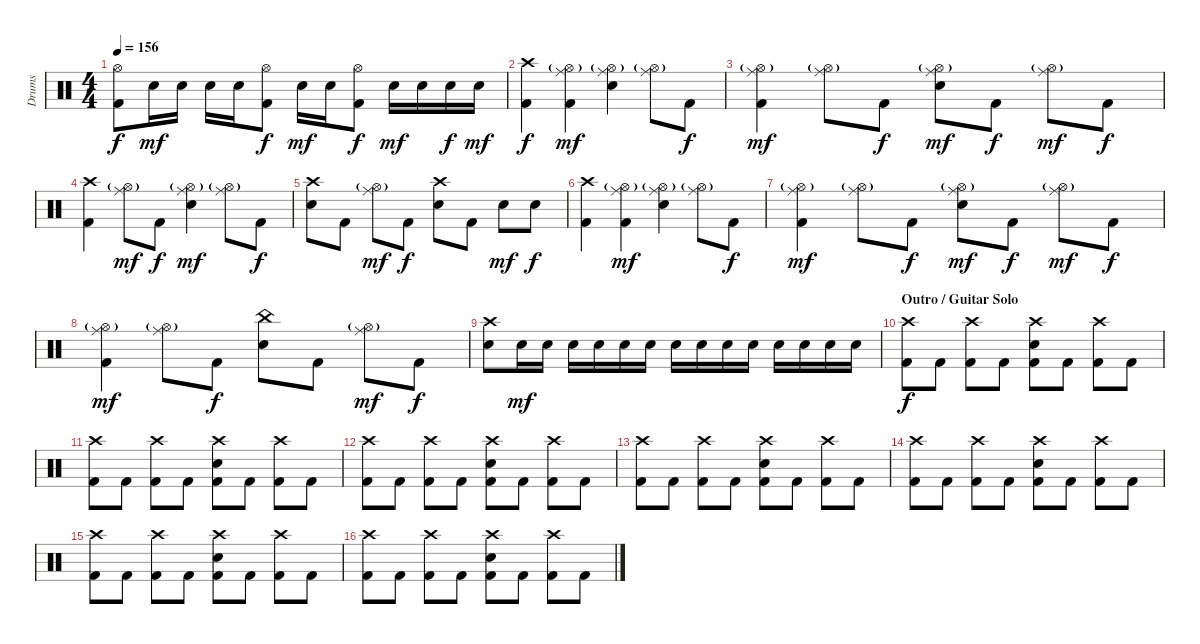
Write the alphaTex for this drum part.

\track ("Drums" "Drums") {instrument percussion}
\staff {score}
\articulation defaults
\ts (4 4)
\tempo 156
\clef neutral
\ks c
("Hi-Hat (open)" "Kick (hit) 2").8{dy f} "Electric Snare (hit)".16{dy mf} "Electric Snare (hit)".16 "Electric Snare (hit)".16 "Electric Snare (hit)".16 ("Hi-Hat (open)" "Kick (hit) 2").8{dy f} "Electric Snare (hit)".16{dy mf} "Electric Snare (hit)".16 ("Hi-Hat (open)" "Kick (hit) 2").8{dy f} "Electric Snare (hit)".16{dy mf} "Electric Snare (hit)".16 "Electric Snare (hit)".16{dy f} "Electric Snare (hit)".16{dy mf} |
("Crash high (hit)" "Kick (hit) 2").4{dy f} ("Ride (middle)" "Hi-Hat (open)"{g} "Kick (hit) 2").4{dy mf} ("Ride (middle)" "Hi-Hat (open)"{g} "Electric Snare (hit)").4 ("Ride (middle)" "Hi-Hat (open)"{g}).8 "Kick (hit) 2".8{dy f} |
("Ride (middle)" "Hi-Hat (open)"{g} "Kick (hit) 2").4{dy mf} ("Ride (middle)" "Hi-Hat (open)"{g}).8 "Kick (hit) 2".8{dy f} ("Ride (middle)" "Hi-Hat (open)"{g} "Electric Snare (hit)").8{dy mf} "Kick (hit) 2".8{dy f} ("Ride (middle)" "Hi-Hat (open)"{g}).8{dy mf} "Kick (hit) 2".8{dy f} |
("Crash high (hit)" "Kick (hit) 2").4 ("Ride (middle)" "Hi-Hat (open)"{g}).8{dy mf} "Kick (hit) 2".8{dy f} ("Ride (middle)" "Hi-Hat (open)"{g} "Electric Snare (hit)").4{dy mf} ("Ride (middle)" "Hi-Hat (open)"{g}).8 "Kick (hit) 2".8{dy f} |
("Crash high (hit)" "Electric Snare (hit)").8 "Kick (hit) 2".8 ("Ride (middle)" "Hi-Hat (open)"{g}).8{dy mf} "Kick (hit) 2".8{dy f} ("Crash high (hit)" "Electric Snare (hit)").8 "Kick (hit) 2".8 "Electric Snare (hit)".8{dy mf} "Electric Snare (hit)".8{dy f} |
("Crash high (hit)" "Kick (hit) 2").4 ("Ride (middle)" "Hi-Hat (open)"{g} "Kick (hit) 2").4{dy mf} ("Ride (middle)" "Hi-Hat (open)"{g} "Electric Snare (hit)").4 ("Ride (middle)" "Hi-Hat (open)"{g}).8 "Kick (hit) 2".8{dy f} |
("Ride (middle)" "Hi-Hat (open)"{g} "Kick (hit) 2").4{dy mf} ("Ride (middle)" "Hi-Hat (open)"{g}).8 "Kick (hit) 2".8{dy f} ("Ride (middle)" "Hi-Hat (open)"{g} "Electric Snare (hit)").8{dy mf} "Kick (hit) 2".8{dy f} ("Ride (middle)" "Hi-Hat (open)"{g}).8{dy mf} "Kick (hit) 2".8{dy f} |
("Ride (middle)" "Hi-Hat (open)"{g} "Kick (hit) 2").4{dy mf} ("Ride (middle)" "Hi-Hat (open)"{g}).8 "Kick (hit) 2".8{dy f} ("China (hit)" "Electric Snare (hit)").8 "Kick (hit) 2".8 ("Ride (middle)" "Hi-Hat (open)"{g}).8{dy mf} "Kick (hit) 2".8{dy f} |
("Crash high (hit)" "Electric Snare (hit)").8 "Electric Snare (hit)".16{dy mf} "Electric Snare (hit)".16 "Electric Snare (hit)".16 "Electric Snare (hit)".16 "Electric Snare (hit)".16 "Electric Snare (hit)".16 "Electric Snare (hit)".16 "Electric Snare (hit)".16 "Electric Snare (hit)".16 "Electric Snare (hit)".16 "Electric Snare (hit)".16 "Electric Snare (hit)".16 "Electric Snare (hit)".16 "Electric Snare (hit)".16 |
\section ("" "Outro / Guitar Solo")
("Crash high (hit)" "Kick (hit) 2").8{dy f} "Kick (hit) 2".8 ("Crash high (hit)" "Kick (hit) 2").8 "Kick (hit) 2".8 ("Crash high (hit)" "Electric Snare (hit)" "Kick (hit) 2").8 "Kick (hit) 2".8 ("Crash high (hit)" "Kick (hit) 2").8 "Kick (hit) 2".8 |
("Crash high (hit)" "Kick (hit) 2").8 "Kick (hit) 2".8 ("Crash high (hit)" "Kick (hit) 2").8 "Kick (hit) 2".8 ("Crash high (hit)" "Electric Snare (hit)" "Kick (hit) 2").8 "Kick (hit) 2".8 ("Crash high (hit)" "Kick (hit) 2").8 "Kick (hit) 2".8 |
("Crash high (hit)" "Kick (hit) 2").8 "Kick (hit) 2".8 ("Crash high (hit)" "Kick (hit) 2").8 "Kick (hit) 2".8 ("Crash high (hit)" "Electric Snare (hit)" "Kick (hit) 2").8 "Kick (hit) 2".8 ("Crash high (hit)" "Kick (hit) 2").8 "Kick (hit) 2".8 |
("Crash high (hit)" "Kick (hit) 2").8 "Kick (hit) 2".8 ("Crash high (hit)" "Kick (hit) 2").8 "Kick (hit) 2".8 ("Crash high (hit)" "Electric Snare (hit)" "Kick (hit) 2").8 "Kick (hit) 2".8 ("Crash high (hit)" "Kick (hit) 2").8 "Kick (hit) 2".8 |
("Crash high (hit)" "Kick (hit) 2").8 "Kick (hit) 2".8 ("Crash high (hit)" "Kick (hit) 2").8 "Kick (hit) 2".8 ("Crash high (hit)" "Electric Snare (hit)" "Kick (hit) 2").8 "Kick (hit) 2".8 ("Crash high (hit)" "Kick (hit) 2").8 "Kick (hit) 2".8 |
("Crash high (hit)" "Kick (hit) 2").8 "Kick (hit) 2".8 ("Crash high (hit)" "Kick (hit) 2").8 "Kick (hit) 2".8 ("Crash high (hit)" "Electric Snare (hit)" "Kick (hit) 2").8 "Kick (hit) 2".8 ("Crash high (hit)" "Kick (hit) 2").8 "Kick (hit) 2".8 |
("Crash high (hit)" "Kick (hit) 2").8 "Kick (hit) 2".8 ("Crash high (hit)" "Kick (hit) 2").8 "Kick (hit) 2".8 ("Crash high (hit)" "Electric Snare (hit)" "Kick (hit) 2").8 "Kick (hit) 2".8 ("Crash high (hit)" "Kick (hit) 2").8 "Kick (hit) 2".8
